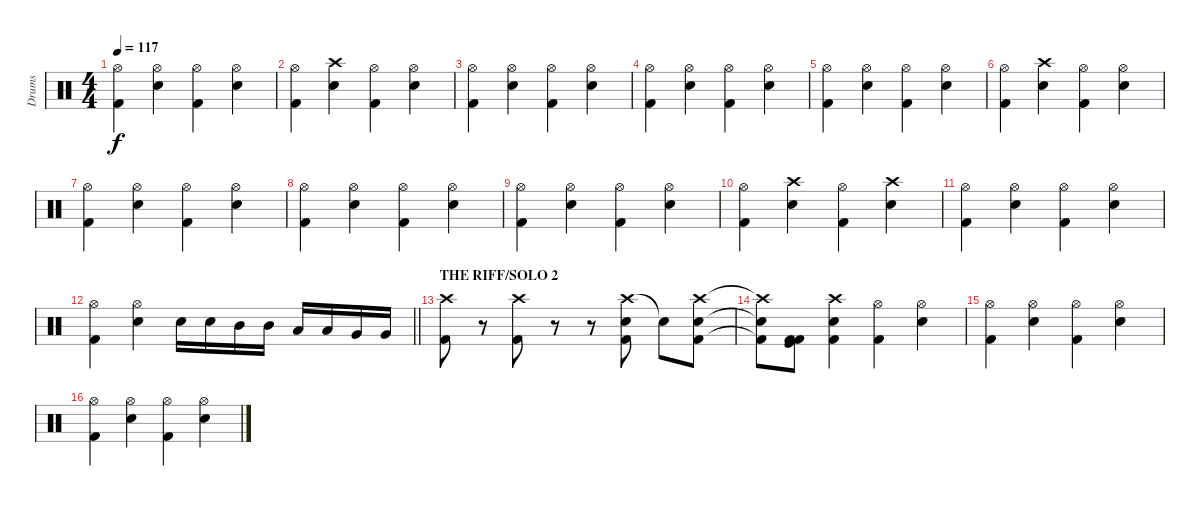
\track ("Drums" "Drums") {instrument percussion}
\staff {score}
\articulation defaults
\ts (4 4)
\tempo 117
\clef neutral
\ks c
("Hi-Hat (open)" "Kick (hit) 2").4{dy f} ("Hi-Hat (open)" "Electric Snare (hit)").4 ("Hi-Hat (open)" "Kick (hit) 2").4 ("Hi-Hat (open)" "Electric Snare (hit)").4 |
("Hi-Hat (open)" "Kick (hit) 2").4 ("Crash high (hit)" "Electric Snare (hit)").4 ("Hi-Hat (open)" "Kick (hit) 2").4 ("Hi-Hat (open)" "Electric Snare (hit)").4 |
("Hi-Hat (open)" "Kick (hit) 2").4 ("Hi-Hat (open)" "Electric Snare (hit)").4 ("Hi-Hat (open)" "Kick (hit) 2").4 ("Hi-Hat (open)" "Electric Snare (hit)").4 |
("Hi-Hat (open)" "Kick (hit) 2").4 ("Hi-Hat (open)" "Electric Snare (hit)").4 ("Hi-Hat (open)" "Kick (hit) 2").4 ("Hi-Hat (open)" "Electric Snare (hit)").4 |
("Hi-Hat (open)" "Kick (hit) 2").4 ("Hi-Hat (open)" "Electric Snare (hit)").4 ("Hi-Hat (open)" "Kick (hit) 2").4 ("Hi-Hat (open)" "Electric Snare (hit)").4 |
("Hi-Hat (open)" "Kick (hit) 2").4 ("Crash high (hit)" "Electric Snare (hit)").4 ("Hi-Hat (open)" "Kick (hit) 2").4 ("Hi-Hat (open)" "Electric Snare (hit)").4 |
("Hi-Hat (open)" "Kick (hit) 2").4 ("Hi-Hat (open)" "Electric Snare (hit)").4 ("Hi-Hat (open)" "Kick (hit) 2").4 ("Hi-Hat (open)" "Electric Snare (hit)").4 |
("Hi-Hat (open)" "Kick (hit) 2").4 ("Hi-Hat (open)" "Electric Snare (hit)").4 ("Hi-Hat (open)" "Kick (hit) 2").4 ("Hi-Hat (open)" "Electric Snare (hit)").4 |
("Hi-Hat (open)" "Kick (hit) 2").4 ("Hi-Hat (open)" "Electric Snare (hit)").4 ("Hi-Hat (open)" "Kick (hit) 2").4 ("Hi-Hat (open)" "Electric Snare (hit)").4 |
("Hi-Hat (open)" "Kick (hit) 2").4 ("Crash high (hit)" "Electric Snare (hit)").4 ("Hi-Hat (open)" "Kick (hit) 2").4 ("Crash high (hit)" "Electric Snare (hit)").4 |
("Hi-Hat (open)" "Kick (hit) 2").4 ("Hi-Hat (open)" "Electric Snare (hit)").4 ("Hi-Hat (open)" "Kick (hit) 2").4 ("Hi-Hat (open)" "Electric Snare (hit)").4 |
\barLineRight lightlight
("Hi-Hat (open)" "Kick (hit) 2").4 ("Hi-Hat (open)" "Electric Snare (hit)").4 "Electric Snare (hit)".16 "Electric Snare (hit)".16 "Mid Tom (hit)".16 "Mid Tom (hit)".16 "Low Tom (hit)".16 "Low Tom (hit)".16 "Very Low Tom (hit)".16 "Very Low Tom (hit)".16 |
\section ("" "THE RIFF/SOLO 2")
("Crash high (hit)" "Kick (hit) 2").8 r.8 ("Crash high (hit)" "Kick (hit) 2").8 r.8 r.8 ("Crash high (hit)" "Electric Snare (hit)" "Kick (hit) 2").8 "Snare (hit)"{t}.8 ("Crash high (hit)" "Electric Snare (hit)" "Kick (hit) 2").8 |
("Crash high (hit)"{t} "Electric Snare (hit)"{t} "Kick (hit) 2"{t}).8 ("Kick (hit) 2" "Kick (hit)" "Kick (hit) 2").8 ("Crash high (hit)" "Electric Snare (hit)" "Kick (hit) 2").4 ("Hi-Hat (open)" "Kick (hit) 2").4 ("Hi-Hat (open)" "Electric Snare (hit)").4 |
("Hi-Hat (open)" "Kick (hit) 2").4 ("Hi-Hat (open)" "Electric Snare (hit)").4 ("Hi-Hat (open)" "Kick (hit) 2").4 ("Hi-Hat (open)" "Electric Snare (hit)").4 |
("Hi-Hat (open)" "Kick (hit) 2").4 ("Hi-Hat (open)" "Electric Snare (hit)").4 ("Hi-Hat (open)" "Kick (hit) 2").4 ("Hi-Hat (open)" "Electric Snare (hit)").4
